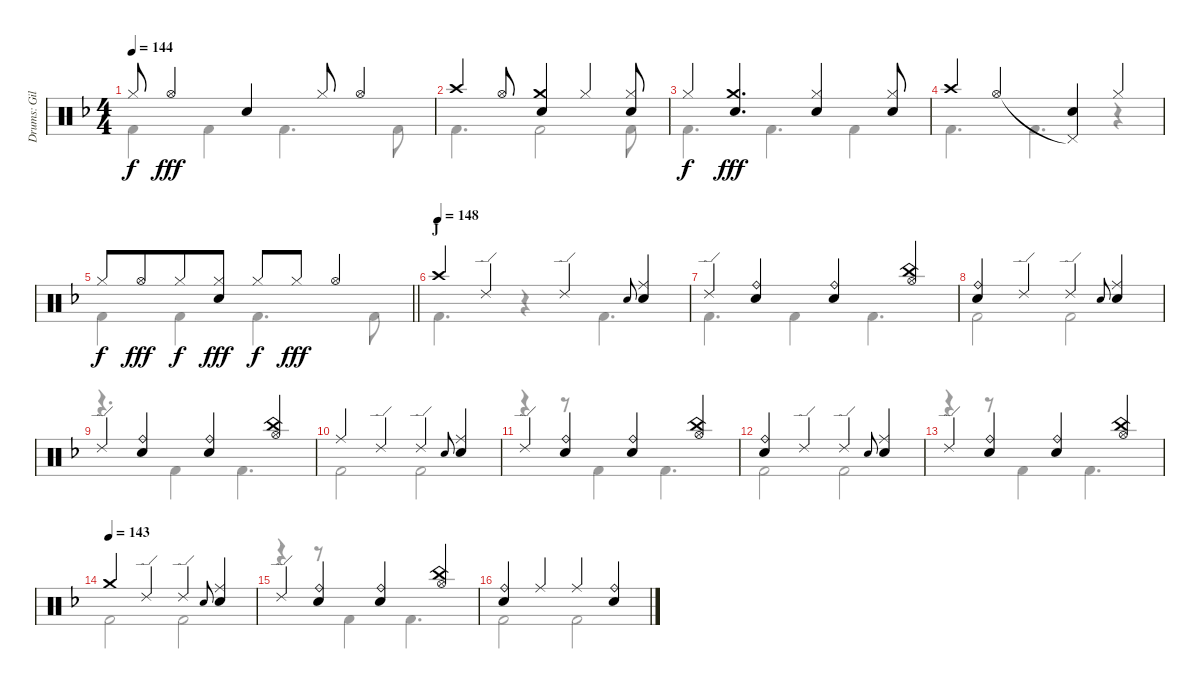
\track ("Drums: Gil" "Drums: Gil") {instrument percussion}
\staff {score}
\articulation defaults
\voice
\ts (4 4)
\tempo 144
\clef neutral
\ks f "Hi-Hat (closed)".8{dy f} "Hi-Hat (open)".4{dy fff} "Snare (hit) 2".4 "Hi-Hat (closed)".8 "Hi-Hat (open)".4
|
"Crash high (hit)".4 "Hi-Hat (open)".8 ("Crash medium (hit)" "Snare (hit) 2").4 "Hi-Hat (closed)".4 ("Hi-Hat (closed)" "Snare (hit) 2").8 |
"Hi-Hat (closed)".4{dy f} ("Crash medium (hit)" "Snare (hit) 2").4{d dy fff} ("Hi-Hat (closed)" "Snare (hit) 2").4 ("Hi-Hat (closed)" "Snare (hit) 2").8 |
"Crash high (hit)".4 "Hi-Hat (open)".4 ("Pedal Hi-Hat (hit)"{t} "Snare (hit) 2").4 "Hi-Hat (closed)".4 |
\barLineRight lightlight "Hi-Hat (closed)".8{dy f} "Hi-Hat (open)".8{dy fff beam merge} "Hi-Hat (closed)".8{dy f}
("Hi-Hat (closed)" "Snare (hit) 2").8{dy fff} "Hi-Hat (closed)".8{dy f} "Hi-Hat (closed)".8{dy fff} "Hi-Hat (open)".4 |
\section ("" "J")
\tempo (148)
"Crash high (hit)".4 "Ride (edge) 2".4 "Ride (edge) 2".4 "Electric Snare (hit)".8{gr onbeat} ("Ride (middle)" "Snare (hit) 2").4 |
"Ride (edge) 2".4 ("Ride (bell)" "Snare (hit) 2").4 ("Ride (bell)" "Snare (hit) 2").4 ("China (hit)" "Hi-Hat (open)").4 |
("Ride (bell)" "Snare (hit) 2").4 "Ride (edge) 2".4 "Ride (edge) 2".4 "Electric Snare (hit)".8{gr onbeat} ("Ride (middle)" "Snare (hit) 2").4 |
"Ride (edge) 2".4 ("Ride (bell)" "Snare (hit) 2").4 ("Ride (bell)" "Snare (hit) 2").4 ("China (hit)" "Hi-Hat (open)").4 |
"Ride (middle)".4 "Ride (edge) 2".4 "Ride (edge) 2".4 "Electric Snare (hit)".8{gr onbeat} ("Ride (middle)" "Snare (hit) 2").4 |
"Ride (edge) 2".4 ("Ride (bell)" "Snare (hit) 2").4 ("Ride (bell)" "Snare (hit) 2").4 ("China (hit)" "Hi-Hat (open)").4 |
("Ride (bell)" "Snare (hit) 2").4 "Ride (edge) 2".4 "Ride (edge) 2".4 "Electric Snare (hit)".8{gr onbeat} ("Ride (middle)" "Snare (hit) 2").4 |
"Ride (edge) 2".4 ("Ride (bell)" "Snare (hit) 2").4 ("Ride (bell)" "Snare (hit) 2").4 ("China (hit)" "Hi-Hat (open)").4 |
\tempo (143)
"Crash medium (hit)".4 "Ride (edge) 2".4 "Ride (edge) 2".4 "Electric Snare (hit)".8{gr onbeat} ("Ride (middle)" "Snare (hit) 2").4 |
"Ride (edge) 2".4 ("Ride (bell)" "Snare (hit) 2").4 ("Ride (bell)" "Snare (hit) 2").4 ("China (hit)" "Hi-Hat (open)").4 |
("Ride (bell)" "Snare (hit) 2").4 "Ride (middle)".4 "Ride (middle)".4 ("Ride (bell)" "Snare (hit) 2").4
\voice
\clef neutral
\ottava regular
\simile none
\ks f "Kick (hit) 2".4{dy f} "Kick (hit) 2".4 "Kick (hit) 2".4{d} "Kick (hit) 2".8
|
"Kick (hit) 2".4{d} "Kick (hit) 2".2 "Kick (hit) 2".8 |
"Kick (hit) 2".4{d} "Kick (hit) 2".4{d} "Kick (hit) 2".4 |
"Kick (hit) 2".4{d} "Kick (hit) 2".4{d} r.4 |
\barLineRight lightlight "Kick (hit) 2".4 "Kick (hit) 2".4 "Kick (hit) 2".4{d} "Kick (hit) 2".8
|
"Kick (hit) 2".4{d} r.4 "Kick (hit) 2".4{d} |
"Kick (hit) 2".4{d} "Kick (hit) 2".4 "Kick (hit) 2".4{d} |
"Kick (hit) 2".2 "Kick (hit) 2".2 |
r.4{d} "Kick (hit) 2".4 "Kick (hit) 2".4{d} |
"Kick (hit) 2".2 "Kick (hit) 2".2 |
r.4 r.8 "Kick (hit) 2".4 "Kick (hit) 2".4{d} |
"Kick (hit) 2".2 "Kick (hit) 2".2 |
r.4 r.8 "Kick (hit) 2".4 "Kick (hit) 2".4{d} |
"Kick (hit) 2".2 "Kick (hit) 2".2 |
r.4 r.8 "Kick (hit) 2".4 "Kick (hit) 2".4{d} |
"Kick (hit) 2".2 "Kick (hit) 2".2
